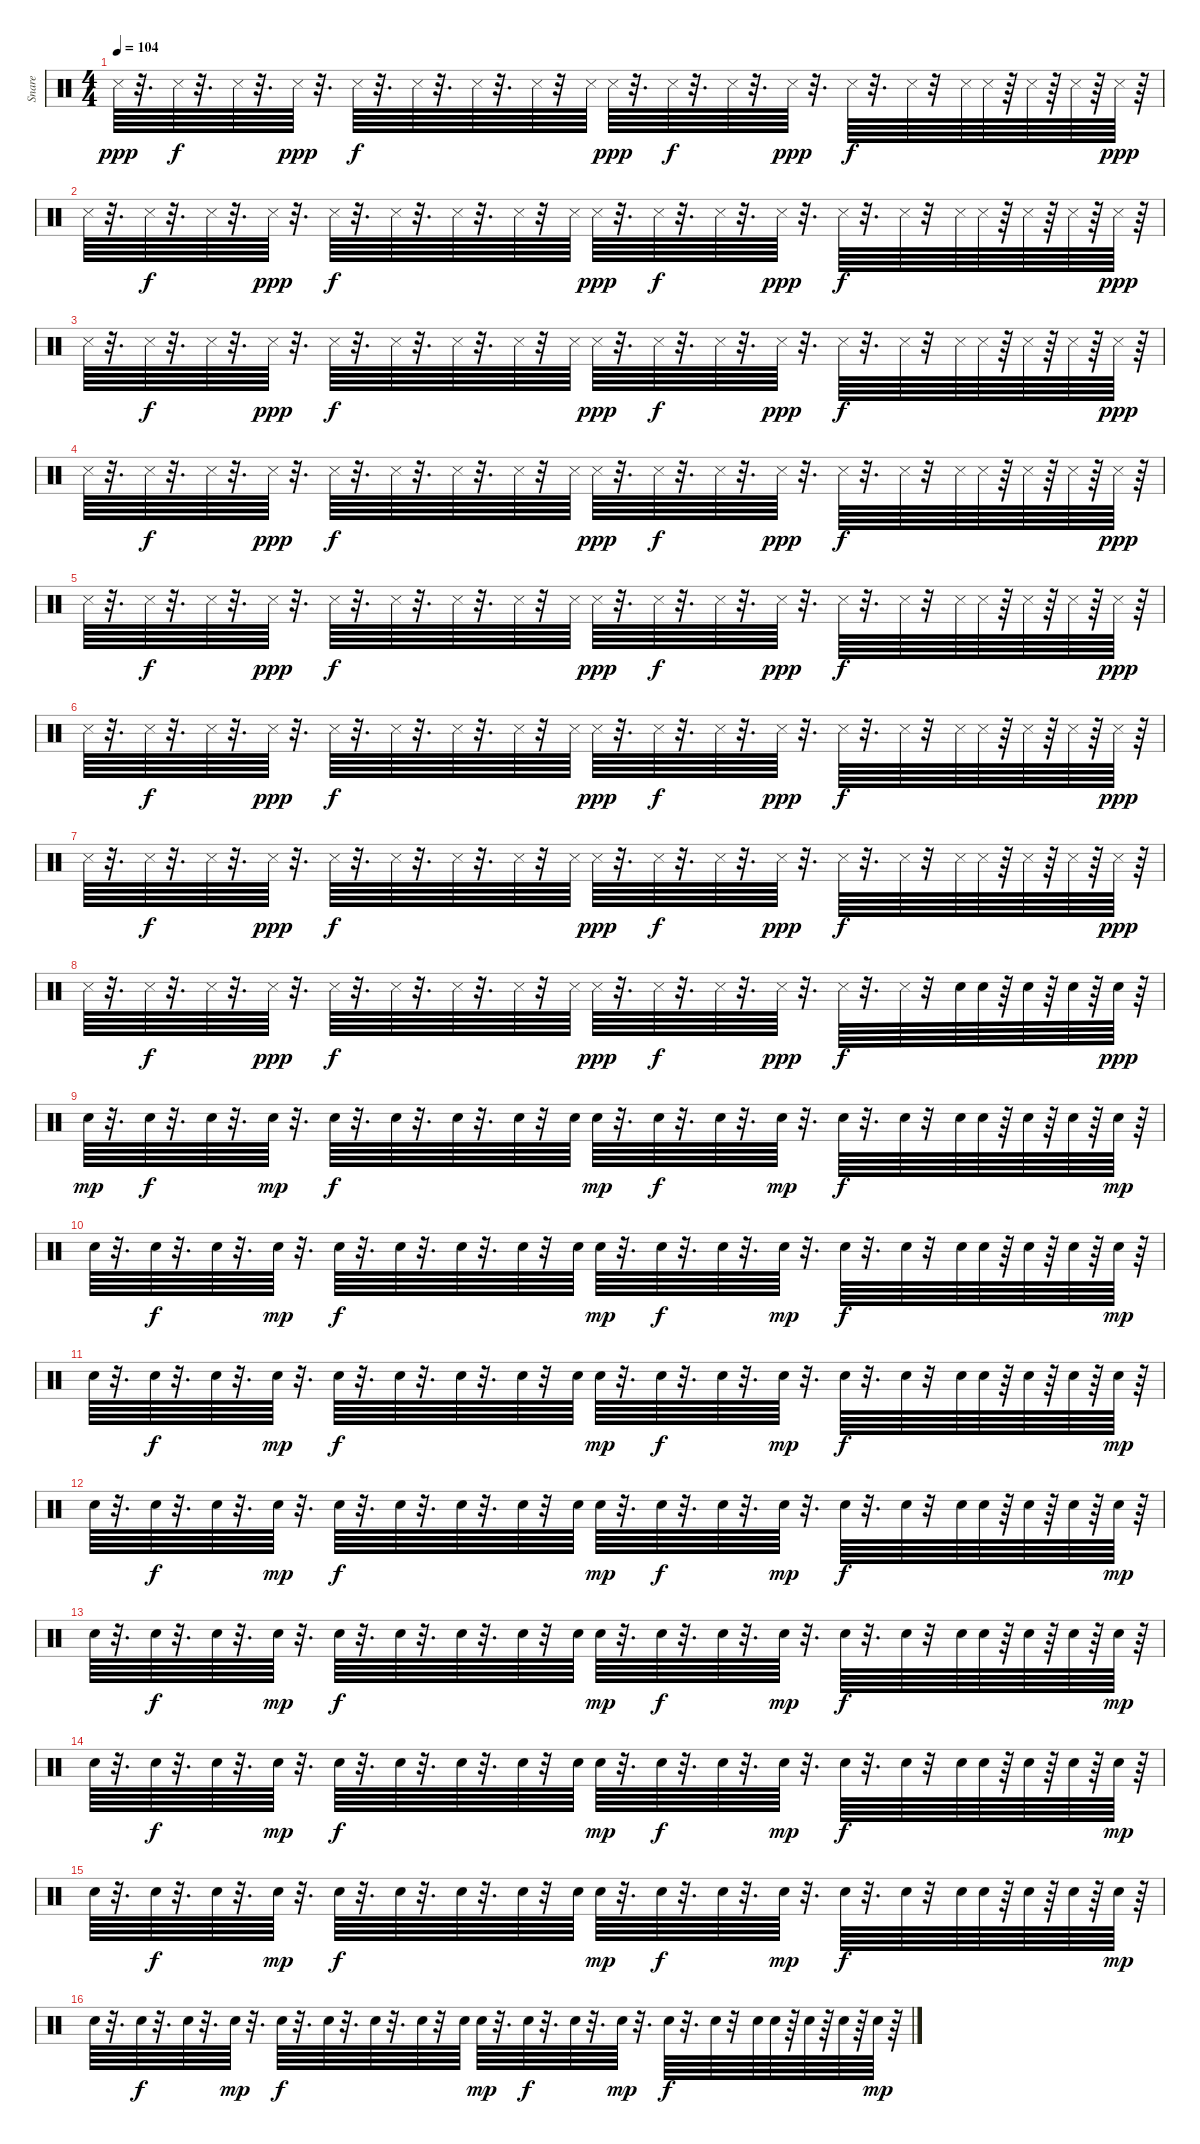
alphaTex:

\track ("Snare" "Snare") {instrument percussion}
\staff {score}
\articulation defaults
\ts (4 4)
\tempo 104
\clef neutral
\ks c "Snare (side stick) 3".64{dy ppp}
r.32{d} "Snare (side stick) 3".64{dy f} r.32{d} "Snare (side stick) 3".64 r.32{d} "Snare (side stick) 3".64{dy ppp} r.32{d} "Snare (side stick) 3".64{dy f} r.32{d} "Snare (side stick) 3".64 r.32{d} "Snare (side stick) 3".64 r.32{d} "Snare (side stick) 3".64 r.32 "Snare (side stick) 3".64 "Snare (side stick) 3".64{dy ppp} r.32{d} "Snare (side stick) 3".64{dy f} r.32{d} "Snare (side stick) 3".64 r.32{d} "Snare (side stick) 3".64{dy ppp} r.32{d} "Snare (side stick) 3".64{dy f} r.32{d} "Snare (side stick) 3".64 r.32 "Snare (side stick) 3".64 "Snare (side stick) 3".64 r.64 "Snare (side stick) 3".64 r.64 "Snare (side stick) 3".64 r.64 "Snare (side stick) 3".64{dy ppp} r.64 |
"Snare (side stick) 3".64 r.32{d} "Snare (side stick) 3".64{dy f} r.32{d} "Snare (side stick) 3".64 r.32{d} "Snare (side stick) 3".64{dy ppp} r.32{d} "Snare (side stick) 3".64{dy f} r.32{d} "Snare (side stick) 3".64 r.32{d} "Snare (side stick) 3".64 r.32{d} "Snare (side stick) 3".64 r.32 "Snare (side stick) 3".64 "Snare (side stick) 3".64{dy ppp} r.32{d} "Snare (side stick) 3".64{dy f} r.32{d} "Snare (side stick) 3".64 r.32{d} "Snare (side stick) 3".64{dy ppp} r.32{d} "Snare (side stick) 3".64{dy f} r.32{d} "Snare (side stick) 3".64 r.32 "Snare (side stick) 3".64 "Snare (side stick) 3".64 r.64 "Snare (side stick) 3".64 r.64 "Snare (side stick) 3".64 r.64 "Snare (side stick) 3".64{dy ppp} r.64 |
"Snare (side stick) 3".64 r.32{d} "Snare (side stick) 3".64{dy f} r.32{d} "Snare (side stick) 3".64 r.32{d} "Snare (side stick) 3".64{dy ppp} r.32{d} "Snare (side stick) 3".64{dy f} r.32{d} "Snare (side stick) 3".64 r.32{d} "Snare (side stick) 3".64 r.32{d} "Snare (side stick) 3".64 r.32 "Snare (side stick) 3".64 "Snare (side stick) 3".64{dy ppp} r.32{d} "Snare (side stick) 3".64{dy f} r.32{d} "Snare (side stick) 3".64 r.32{d} "Snare (side stick) 3".64{dy ppp} r.32{d} "Snare (side stick) 3".64{dy f} r.32{d} "Snare (side stick) 3".64 r.32 "Snare (side stick) 3".64 "Snare (side stick) 3".64 r.64 "Snare (side stick) 3".64 r.64 "Snare (side stick) 3".64 r.64 "Snare (side stick) 3".64{dy ppp} r.64 |
"Snare (side stick) 3".64 r.32{d} "Snare (side stick) 3".64{dy f} r.32{d} "Snare (side stick) 3".64 r.32{d} "Snare (side stick) 3".64{dy ppp} r.32{d} "Snare (side stick) 3".64{dy f} r.32{d} "Snare (side stick) 3".64 r.32{d} "Snare (side stick) 3".64 r.32{d} "Snare (side stick) 3".64 r.32 "Snare (side stick) 3".64 "Snare (side stick) 3".64{dy ppp} r.32{d} "Snare (side stick) 3".64{dy f} r.32{d} "Snare (side stick) 3".64 r.32{d} "Snare (side stick) 3".64{dy ppp} r.32{d} "Snare (side stick) 3".64{dy f} r.32{d} "Snare (side stick) 3".64 r.32 "Snare (side stick) 3".64 "Snare (side stick) 3".64 r.64 "Snare (side stick) 3".64 r.64 "Snare (side stick) 3".64 r.64 "Snare (side stick) 3".64{dy ppp} r.64 |
"Snare (side stick) 3".64 r.32{d} "Snare (side stick) 3".64{dy f} r.32{d} "Snare (side stick) 3".64 r.32{d} "Snare (side stick) 3".64{dy ppp} r.32{d} "Snare (side stick) 3".64{dy f} r.32{d} "Snare (side stick) 3".64 r.32{d} "Snare (side stick) 3".64 r.32{d} "Snare (side stick) 3".64 r.32 "Snare (side stick) 3".64 "Snare (side stick) 3".64{dy ppp} r.32{d} "Snare (side stick) 3".64{dy f} r.32{d} "Snare (side stick) 3".64 r.32{d} "Snare (side stick) 3".64{dy ppp} r.32{d} "Snare (side stick) 3".64{dy f} r.32{d} "Snare (side stick) 3".64 r.32 "Snare (side stick) 3".64 "Snare (side stick) 3".64 r.64 "Snare (side stick) 3".64 r.64 "Snare (side stick) 3".64 r.64 "Snare (side stick) 3".64{dy ppp} r.64 |
"Snare (side stick) 3".64 r.32{d} "Snare (side stick) 3".64{dy f} r.32{d} "Snare (side stick) 3".64 r.32{d} "Snare (side stick) 3".64{dy ppp} r.32{d} "Snare (side stick) 3".64{dy f} r.32{d} "Snare (side stick) 3".64 r.32{d} "Snare (side stick) 3".64 r.32{d} "Snare (side stick) 3".64 r.32 "Snare (side stick) 3".64 "Snare (side stick) 3".64{dy ppp} r.32{d} "Snare (side stick) 3".64{dy f} r.32{d} "Snare (side stick) 3".64 r.32{d} "Snare (side stick) 3".64{dy ppp} r.32{d} "Snare (side stick) 3".64{dy f} r.32{d} "Snare (side stick) 3".64 r.32 "Snare (side stick) 3".64 "Snare (side stick) 3".64 r.64 "Snare (side stick) 3".64 r.64 "Snare (side stick) 3".64 r.64 "Snare (side stick) 3".64{dy ppp} r.64 |
"Snare (side stick) 3".64 r.32{d} "Snare (side stick) 3".64{dy f} r.32{d} "Snare (side stick) 3".64 r.32{d} "Snare (side stick) 3".64{dy ppp} r.32{d} "Snare (side stick) 3".64{dy f} r.32{d} "Snare (side stick) 3".64 r.32{d} "Snare (side stick) 3".64 r.32{d} "Snare (side stick) 3".64 r.32 "Snare (side stick) 3".64 "Snare (side stick) 3".64{dy ppp} r.32{d} "Snare (side stick) 3".64{dy f} r.32{d} "Snare (side stick) 3".64 r.32{d} "Snare (side stick) 3".64{dy ppp} r.32{d} "Snare (side stick) 3".64{dy f} r.32{d} "Snare (side stick) 3".64 r.32 "Snare (side stick) 3".64 "Snare (side stick) 3".64 r.64 "Snare (side stick) 3".64 r.64 "Snare (side stick) 3".64 r.64 "Snare (side stick) 3".64{dy ppp} r.64 |
"Snare (side stick) 3".64 r.32{d} "Snare (side stick) 3".64{dy f} r.32{d} "Snare (side stick) 3".64 r.32{d} "Snare (side stick) 3".64{dy ppp} r.32{d} "Snare (side stick) 3".64{dy f} r.32{d} "Snare (side stick) 3".64 r.32{d} "Snare (side stick) 3".64 r.32{d} "Snare (side stick) 3".64 r.32 "Snare (side stick) 3".64 "Snare (side stick) 3".64{dy ppp} r.32{d} "Snare (side stick) 3".64{dy f} r.32{d} "Snare (side stick) 3".64 r.32{d} "Snare (side stick) 3".64{dy ppp} r.32{d} "Snare (side stick) 3".64{dy f} r.32{d} "Snare (side stick) 3".64 r.32 "Snare (hit) 2".64 "Snare (hit) 2".64 r.64 "Snare (hit) 2".64 r.64 "Snare (hit) 2".64 r.64 "Snare (hit) 2".64{dy ppp} r.64 |
"Snare (hit) 2".64{dy mp} r.32{d} "Snare (hit) 2".64{dy f} r.32{d} "Snare (hit) 2".64 r.32{d} "Snare (hit) 2".64{dy mp} r.32{d} "Snare (hit) 2".64{dy f} r.32{d} "Snare (hit) 2".64 r.32{d} "Snare (hit) 2".64 r.32{d} "Snare (hit) 2".64 r.32 "Snare (hit) 2".64 "Snare (hit) 2".64{dy mp} r.32{d} "Snare (hit) 2".64{dy f} r.32{d} "Snare (hit) 2".64 r.32{d} "Snare (hit) 2".64{dy mp} r.32{d} "Snare (hit) 2".64{dy f} r.32{d} "Snare (hit) 2".64 r.32 "Snare (hit) 2".64 "Snare (hit) 2".64 r.64 "Snare (hit) 2".64 r.64 "Snare (hit) 2".64 r.64 "Snare (hit) 2".64{dy mp} r.64 |
"Snare (hit) 2".64 r.32{d} "Snare (hit) 2".64{dy f} r.32{d} "Snare (hit) 2".64 r.32{d} "Snare (hit) 2".64{dy mp} r.32{d} "Snare (hit) 2".64{dy f} r.32{d} "Snare (hit) 2".64 r.32{d} "Snare (hit) 2".64 r.32{d} "Snare (hit) 2".64 r.32 "Snare (hit) 2".64 "Snare (hit) 2".64{dy mp} r.32{d} "Snare (hit) 2".64{dy f} r.32{d} "Snare (hit) 2".64 r.32{d} "Snare (hit) 2".64{dy mp} r.32{d} "Snare (hit) 2".64{dy f} r.32{d} "Snare (hit) 2".64 r.32 "Snare (hit) 2".64 "Snare (hit) 2".64 r.64 "Snare (hit) 2".64 r.64 "Snare (hit) 2".64 r.64 "Snare (hit) 2".64{dy mp} r.64 |
"Snare (hit) 2".64 r.32{d} "Snare (hit) 2".64{dy f} r.32{d} "Snare (hit) 2".64 r.32{d} "Snare (hit) 2".64{dy mp} r.32{d} "Snare (hit) 2".64{dy f} r.32{d} "Snare (hit) 2".64 r.32{d} "Snare (hit) 2".64 r.32{d} "Snare (hit) 2".64 r.32 "Snare (hit) 2".64 "Snare (hit) 2".64{dy mp} r.32{d} "Snare (hit) 2".64{dy f} r.32{d} "Snare (hit) 2".64 r.32{d} "Snare (hit) 2".64{dy mp} r.32{d} "Snare (hit) 2".64{dy f} r.32{d} "Snare (hit) 2".64 r.32 "Snare (hit) 2".64 "Snare (hit) 2".64 r.64 "Snare (hit) 2".64 r.64 "Snare (hit) 2".64 r.64 "Snare (hit) 2".64{dy mp} r.64 |
"Snare (hit) 2".64 r.32{d} "Snare (hit) 2".64{dy f} r.32{d} "Snare (hit) 2".64 r.32{d} "Snare (hit) 2".64{dy mp} r.32{d} "Snare (hit) 2".64{dy f} r.32{d} "Snare (hit) 2".64 r.32{d} "Snare (hit) 2".64 r.32{d} "Snare (hit) 2".64 r.32 "Snare (hit) 2".64 "Snare (hit) 2".64{dy mp} r.32{d} "Snare (hit) 2".64{dy f} r.32{d} "Snare (hit) 2".64 r.32{d} "Snare (hit) 2".64{dy mp} r.32{d} "Snare (hit) 2".64{dy f} r.32{d} "Snare (hit) 2".64 r.32 "Snare (hit) 2".64 "Snare (hit) 2".64 r.64 "Snare (hit) 2".64 r.64 "Snare (hit) 2".64 r.64 "Snare (hit) 2".64{dy mp} r.64 |
"Snare (hit) 2".64 r.32{d} "Snare (hit) 2".64{dy f} r.32{d} "Snare (hit) 2".64 r.32{d} "Snare (hit) 2".64{dy mp} r.32{d} "Snare (hit) 2".64{dy f} r.32{d} "Snare (hit) 2".64 r.32{d} "Snare (hit) 2".64 r.32{d} "Snare (hit) 2".64 r.32 "Snare (hit) 2".64 "Snare (hit) 2".64{dy mp} r.32{d} "Snare (hit) 2".64{dy f} r.32{d} "Snare (hit) 2".64 r.32{d} "Snare (hit) 2".64{dy mp} r.32{d} "Snare (hit) 2".64{dy f} r.32{d} "Snare (hit) 2".64 r.32 "Snare (hit) 2".64 "Snare (hit) 2".64 r.64 "Snare (hit) 2".64 r.64 "Snare (hit) 2".64 r.64 "Snare (hit) 2".64{dy mp} r.64 |
"Snare (hit) 2".64 r.32{d} "Snare (hit) 2".64{dy f} r.32{d} "Snare (hit) 2".64 r.32{d} "Snare (hit) 2".64{dy mp} r.32{d} "Snare (hit) 2".64{dy f} r.32{d} "Snare (hit) 2".64 r.32{d} "Snare (hit) 2".64 r.32{d} "Snare (hit) 2".64 r.32 "Snare (hit) 2".64 "Snare (hit) 2".64{dy mp} r.32{d} "Snare (hit) 2".64{dy f} r.32{d} "Snare (hit) 2".64 r.32{d} "Snare (hit) 2".64{dy mp} r.32{d} "Snare (hit) 2".64{dy f} r.32{d} "Snare (hit) 2".64 r.32 "Snare (hit) 2".64 "Snare (hit) 2".64 r.64 "Snare (hit) 2".64 r.64 "Snare (hit) 2".64 r.64 "Snare (hit) 2".64{dy mp} r.64 |
"Snare (hit) 2".64 r.32{d} "Snare (hit) 2".64{dy f} r.32{d} "Snare (hit) 2".64 r.32{d} "Snare (hit) 2".64{dy mp} r.32{d} "Snare (hit) 2".64{dy f} r.32{d} "Snare (hit) 2".64 r.32{d} "Snare (hit) 2".64 r.32{d} "Snare (hit) 2".64 r.32 "Snare (hit) 2".64 "Snare (hit) 2".64{dy mp} r.32{d} "Snare (hit) 2".64{dy f} r.32{d} "Snare (hit) 2".64 r.32{d} "Snare (hit) 2".64{dy mp} r.32{d} "Snare (hit) 2".64{dy f} r.32{d} "Snare (hit) 2".64 r.32 "Snare (hit) 2".64 "Snare (hit) 2".64 r.64 "Snare (hit) 2".64 r.64 "Snare (hit) 2".64 r.64 "Snare (hit) 2".64{dy mp} r.64 |
"Snare (hit) 2".64 r.32{d} "Snare (hit) 2".64{dy f} r.32{d} "Snare (hit) 2".64 r.32{d} "Snare (hit) 2".64{dy mp} r.32{d} "Snare (hit) 2".64{dy f} r.32{d} "Snare (hit) 2".64 r.32{d} "Snare (hit) 2".64 r.32{d} "Snare (hit) 2".64 r.32 "Snare (hit) 2".64 "Snare (hit) 2".64{dy mp} r.32{d} "Snare (hit) 2".64{dy f} r.32{d} "Snare (hit) 2".64 r.32{d} "Snare (hit) 2".64{dy mp} r.32{d} "Snare (hit) 2".64{dy f} r.32{d} "Snare (hit) 2".64 r.32 "Snare (hit) 2".64 "Snare (hit) 2".64 r.64 "Snare (hit) 2".64 r.64 "Snare (hit) 2".64 r.64 "Snare (hit) 2".64{dy mp} r.64
